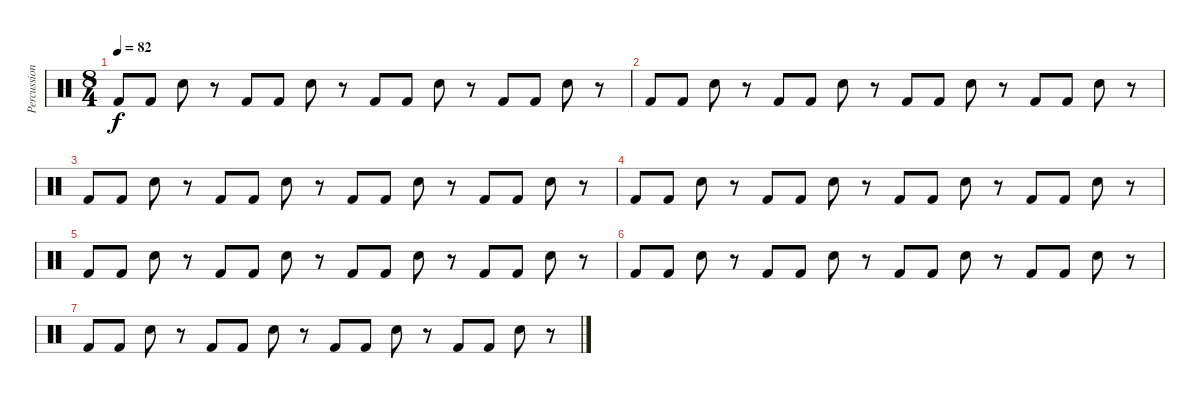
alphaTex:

\track ("Percussion" "Percussion") {instrument percussion}
\staff {score}
\articulation defaults
\ts (8 4)
\tempo 82
\clef neutral
\ks c "Kick (hit) 2".8{dy f} "Kick (hit) 2".8 "Electric Snare (hit)".8
r.8 "Kick (hit) 2".8 "Kick (hit) 2".8 "Electric Snare (hit)".8 r.8 "Kick (hit) 2".8 "Kick (hit) 2".8 "Electric Snare (hit)".8 r.8 "Kick (hit) 2".8 "Kick (hit) 2".8 "Electric Snare (hit)".8 r.8 |
"Kick (hit) 2".8 "Kick (hit) 2".8 "Electric Snare (hit)".8 r.8 "Kick (hit) 2".8 "Kick (hit) 2".8 "Electric Snare (hit)".8 r.8 "Kick (hit) 2".8 "Kick (hit) 2".8 "Electric Snare (hit)".8 r.8 "Kick (hit) 2".8 "Kick (hit) 2".8 "Electric Snare (hit)".8 r.8 |
"Kick (hit) 2".8 "Kick (hit) 2".8 "Electric Snare (hit)".8 r.8 "Kick (hit) 2".8 "Kick (hit) 2".8 "Electric Snare (hit)".8 r.8 "Kick (hit) 2".8 "Kick (hit) 2".8 "Electric Snare (hit)".8 r.8 "Kick (hit) 2".8 "Kick (hit) 2".8 "Electric Snare (hit)".8 r.8 |
"Kick (hit) 2".8 "Kick (hit) 2".8 "Electric Snare (hit)".8 r.8 "Kick (hit) 2".8 "Kick (hit) 2".8 "Electric Snare (hit)".8 r.8 "Kick (hit) 2".8 "Kick (hit) 2".8 "Electric Snare (hit)".8 r.8 "Kick (hit) 2".8 "Kick (hit) 2".8 "Electric Snare (hit)".8 r.8 |
"Kick (hit) 2".8 "Kick (hit) 2".8 "Electric Snare (hit)".8 r.8 "Kick (hit) 2".8 "Kick (hit) 2".8 "Electric Snare (hit)".8 r.8 "Kick (hit) 2".8 "Kick (hit) 2".8 "Electric Snare (hit)".8 r.8 "Kick (hit) 2".8 "Kick (hit) 2".8 "Electric Snare (hit)".8 r.8 |
"Kick (hit) 2".8 "Kick (hit) 2".8 "Electric Snare (hit)".8 r.8 "Kick (hit) 2".8 "Kick (hit) 2".8 "Electric Snare (hit)".8 r.8 "Kick (hit) 2".8 "Kick (hit) 2".8 "Electric Snare (hit)".8 r.8 "Kick (hit) 2".8 "Kick (hit) 2".8 "Electric Snare (hit)".8 r.8 |
"Kick (hit) 2".8 "Kick (hit) 2".8 "Electric Snare (hit)".8 r.8 "Kick (hit) 2".8 "Kick (hit) 2".8 "Electric Snare (hit)".8 r.8 "Kick (hit) 2".8 "Kick (hit) 2".8 "Electric Snare (hit)".8 r.8 "Kick (hit) 2".8 "Kick (hit) 2".8 "Electric Snare (hit)".8 r.8
